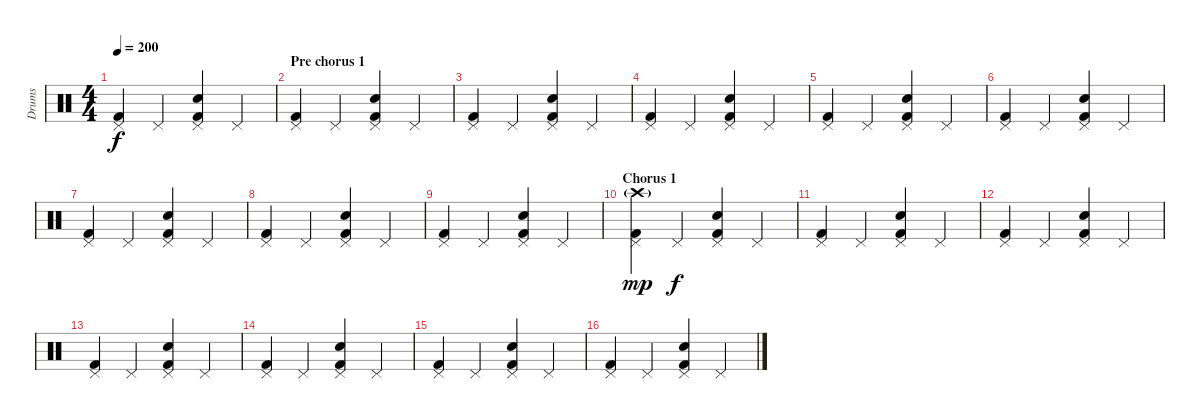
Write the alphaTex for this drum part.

\track ("Drums" "Drums") {instrument percussion}
\staff {score}
\articulation defaults
\ts (4 4)
\tempo 200
\clef neutral
\ks c
("Pedal Hi-Hat (hit)" "Kick (hit) 2").4{dy f} "Pedal Hi-Hat (hit)".4 ("Pedal Hi-Hat (hit)" "Kick (hit) 2" "Snare (hit) 2").4 "Pedal Hi-Hat (hit)".4 |
\section ("" "Pre chorus 1")
("Pedal Hi-Hat (hit)" "Kick (hit) 2").4 "Pedal Hi-Hat (hit)".4 ("Pedal Hi-Hat (hit)" "Kick (hit) 2" "Snare (hit) 2").4 "Pedal Hi-Hat (hit)".4 |
("Pedal Hi-Hat (hit)" "Kick (hit) 2").4 "Pedal Hi-Hat (hit)".4 ("Pedal Hi-Hat (hit)" "Kick (hit) 2" "Snare (hit) 2").4 "Pedal Hi-Hat (hit)".4 |
("Pedal Hi-Hat (hit)" "Kick (hit) 2").4 "Pedal Hi-Hat (hit)".4 ("Pedal Hi-Hat (hit)" "Kick (hit) 2" "Snare (hit) 2").4 "Pedal Hi-Hat (hit)".4 |
("Pedal Hi-Hat (hit)" "Kick (hit) 2").4 "Pedal Hi-Hat (hit)".4 ("Pedal Hi-Hat (hit)" "Kick (hit) 2" "Snare (hit) 2").4 "Pedal Hi-Hat (hit)".4 |
("Pedal Hi-Hat (hit)" "Kick (hit) 2").4 "Pedal Hi-Hat (hit)".4 ("Pedal Hi-Hat (hit)" "Kick (hit) 2" "Snare (hit) 2").4 "Pedal Hi-Hat (hit)".4 |
("Pedal Hi-Hat (hit)" "Kick (hit) 2").4 "Pedal Hi-Hat (hit)".4 ("Pedal Hi-Hat (hit)" "Kick (hit) 2" "Snare (hit) 2").4 "Pedal Hi-Hat (hit)".4 |
("Pedal Hi-Hat (hit)" "Kick (hit) 2").4 "Pedal Hi-Hat (hit)".4 ("Pedal Hi-Hat (hit)" "Kick (hit) 2" "Snare (hit) 2").4 "Pedal Hi-Hat (hit)".4 |
("Pedal Hi-Hat (hit)" "Kick (hit) 2").4 "Pedal Hi-Hat (hit)".4 ("Pedal Hi-Hat (hit)" "Kick (hit) 2" "Snare (hit) 2").4 "Pedal Hi-Hat (hit)".4 |
\section ("" "Chorus 1")
("Pedal Hi-Hat (hit)" "Crash high (hit)"{g} "Kick (hit) 2").4{dy mp} "Pedal Hi-Hat (hit)".4{dy f} ("Pedal Hi-Hat (hit)" "Kick (hit) 2" "Snare (hit) 2").4 "Pedal Hi-Hat (hit)".4 |
("Pedal Hi-Hat (hit)" "Kick (hit) 2").4 "Pedal Hi-Hat (hit)".4 ("Pedal Hi-Hat (hit)" "Kick (hit) 2" "Snare (hit) 2").4 "Pedal Hi-Hat (hit)".4 |
("Pedal Hi-Hat (hit)" "Kick (hit) 2").4 "Pedal Hi-Hat (hit)".4 ("Pedal Hi-Hat (hit)" "Kick (hit) 2" "Snare (hit) 2").4 "Pedal Hi-Hat (hit)".4 |
("Pedal Hi-Hat (hit)" "Kick (hit) 2").4 "Pedal Hi-Hat (hit)".4 ("Pedal Hi-Hat (hit)" "Kick (hit) 2" "Snare (hit) 2").4 "Pedal Hi-Hat (hit)".4 |
("Pedal Hi-Hat (hit)" "Kick (hit) 2").4 "Pedal Hi-Hat (hit)".4 ("Pedal Hi-Hat (hit)" "Kick (hit) 2" "Snare (hit) 2").4 "Pedal Hi-Hat (hit)".4 |
("Pedal Hi-Hat (hit)" "Kick (hit) 2").4 "Pedal Hi-Hat (hit)".4 ("Pedal Hi-Hat (hit)" "Kick (hit) 2" "Snare (hit) 2").4 "Pedal Hi-Hat (hit)".4 |
("Pedal Hi-Hat (hit)" "Kick (hit) 2").4 "Pedal Hi-Hat (hit)".4 ("Pedal Hi-Hat (hit)" "Kick (hit) 2" "Snare (hit) 2").4 "Pedal Hi-Hat (hit)".4
